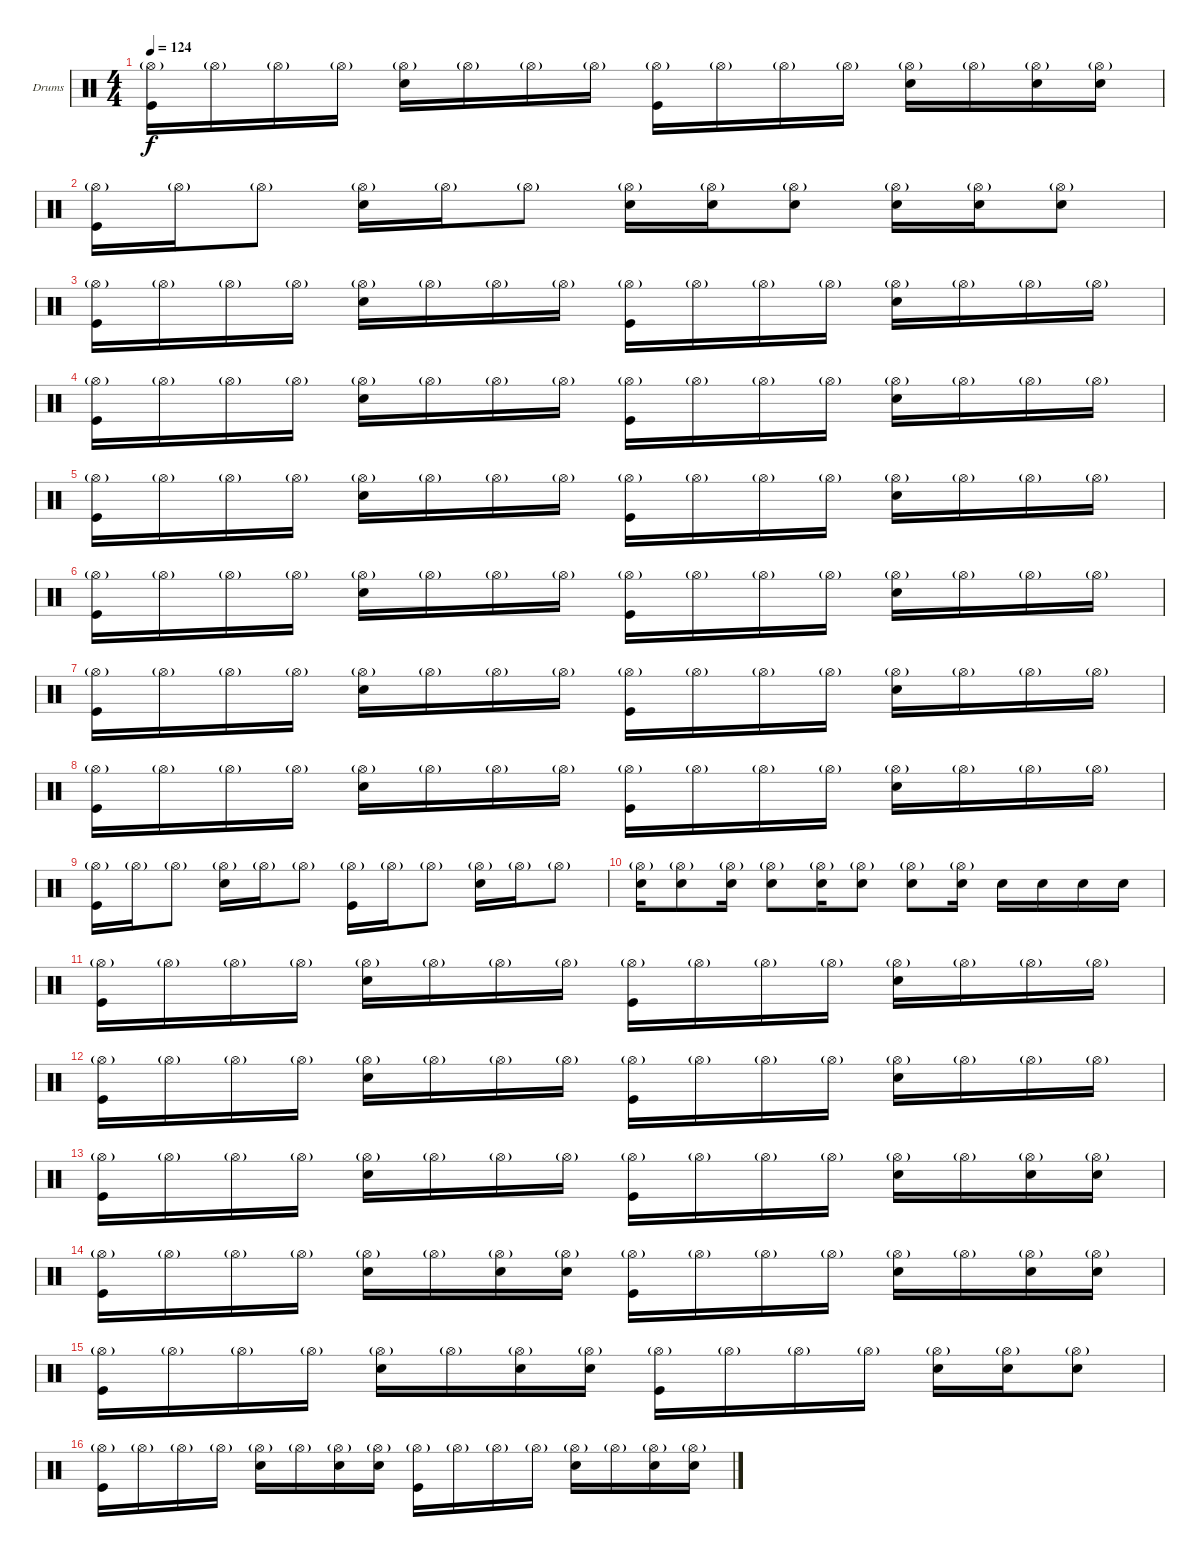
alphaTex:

\bracketExtendMode groupsimilarinstruments
\firstSystemTrackNameOrientation horizontal
\otherSystemsTrackNameOrientation horizontal
\track ("Drumkit" "Drums") {instrument percussion}
\staff {score}
\articulation defaults
\ts (4 4)
\tempo 124
\clef neutral
\ks c
("Kick (hit)" "Hi-Hat (open)"{g}).16{dy f} "Hi-Hat (open)"{g}.16 "Hi-Hat (open)"{g}.16 "Hi-Hat (open)"{g}.16 ("Snare (hit) 2" "Hi-Hat (open)"{g}).16 "Hi-Hat (open)"{g}.16 "Hi-Hat (open)"{g}.16 "Hi-Hat (open)"{g}.16 ("Kick (hit)" "Hi-Hat (open)"{g}).16 "Hi-Hat (open)"{g}.16 "Hi-Hat (open)"{g}.16 "Hi-Hat (open)"{g}.16 ("Snare (hit) 2" "Hi-Hat (open)"{g}).16 "Hi-Hat (open)"{g}.16 ("Snare (hit) 2" "Hi-Hat (open)"{g}).16 ("Snare (hit) 2" "Hi-Hat (open)"{g}).16 |
("Kick (hit)" "Hi-Hat (open)"{g}).16 "Hi-Hat (open)"{g}.16 "Hi-Hat (open)"{g}.8 ("Snare (hit) 2" "Hi-Hat (open)"{g}).16 "Hi-Hat (open)"{g}.16 "Hi-Hat (open)"{g}.8 ("Snare (hit) 2" "Hi-Hat (open)"{g}).16 ("Snare (hit) 2" "Hi-Hat (open)"{g}).16 ("Snare (hit) 2" "Hi-Hat (open)"{g}).8 ("Snare (hit) 2" "Hi-Hat (open)"{g}).16 ("Snare (hit) 2" "Hi-Hat (open)"{g}).16 ("Snare (hit) 2" "Hi-Hat (open)"{g}).8 |
("Kick (hit)" "Hi-Hat (open)"{g}).16 "Hi-Hat (open)"{g}.16 "Hi-Hat (open)"{g}.16 "Hi-Hat (open)"{g}.16 ("Snare (hit) 2" "Hi-Hat (open)"{g}).16 "Hi-Hat (open)"{g}.16 "Hi-Hat (open)"{g}.16 "Hi-Hat (open)"{g}.16 ("Kick (hit)" "Hi-Hat (open)"{g}).16 "Hi-Hat (open)"{g}.16 "Hi-Hat (open)"{g}.16 "Hi-Hat (open)"{g}.16 ("Snare (hit) 2" "Hi-Hat (open)"{g}).16 "Hi-Hat (open)"{g}.16 "Hi-Hat (open)"{g}.16 "Hi-Hat (open)"{g}.16 |
("Kick (hit)" "Hi-Hat (open)"{g}).16 "Hi-Hat (open)"{g}.16 "Hi-Hat (open)"{g}.16 "Hi-Hat (open)"{g}.16 ("Snare (hit) 2" "Hi-Hat (open)"{g}).16 "Hi-Hat (open)"{g}.16 "Hi-Hat (open)"{g}.16 "Hi-Hat (open)"{g}.16 ("Kick (hit)" "Hi-Hat (open)"{g}).16 "Hi-Hat (open)"{g}.16 "Hi-Hat (open)"{g}.16 "Hi-Hat (open)"{g}.16 ("Snare (hit) 2" "Hi-Hat (open)"{g}).16 "Hi-Hat (open)"{g}.16 "Hi-Hat (open)"{g}.16 "Hi-Hat (open)"{g}.16 |
("Kick (hit)" "Hi-Hat (open)"{g}).16 "Hi-Hat (open)"{g}.16 "Hi-Hat (open)"{g}.16 "Hi-Hat (open)"{g}.16 ("Snare (hit) 2" "Hi-Hat (open)"{g}).16 "Hi-Hat (open)"{g}.16 "Hi-Hat (open)"{g}.16 "Hi-Hat (open)"{g}.16 ("Kick (hit)" "Hi-Hat (open)"{g}).16 "Hi-Hat (open)"{g}.16 "Hi-Hat (open)"{g}.16 "Hi-Hat (open)"{g}.16 ("Snare (hit) 2" "Hi-Hat (open)"{g}).16 "Hi-Hat (open)"{g}.16 "Hi-Hat (open)"{g}.16 "Hi-Hat (open)"{g}.16 |
("Kick (hit)" "Hi-Hat (open)"{g}).16 "Hi-Hat (open)"{g}.16 "Hi-Hat (open)"{g}.16 "Hi-Hat (open)"{g}.16 ("Snare (hit) 2" "Hi-Hat (open)"{g}).16 "Hi-Hat (open)"{g}.16 "Hi-Hat (open)"{g}.16 "Hi-Hat (open)"{g}.16 ("Kick (hit)" "Hi-Hat (open)"{g}).16 "Hi-Hat (open)"{g}.16 "Hi-Hat (open)"{g}.16 "Hi-Hat (open)"{g}.16 ("Snare (hit) 2" "Hi-Hat (open)"{g}).16 "Hi-Hat (open)"{g}.16 "Hi-Hat (open)"{g}.16 "Hi-Hat (open)"{g}.16 |
("Kick (hit)" "Hi-Hat (open)"{g}).16 "Hi-Hat (open)"{g}.16 "Hi-Hat (open)"{g}.16 "Hi-Hat (open)"{g}.16 ("Snare (hit) 2" "Hi-Hat (open)"{g}).16 "Hi-Hat (open)"{g}.16 "Hi-Hat (open)"{g}.16 "Hi-Hat (open)"{g}.16 ("Kick (hit)" "Hi-Hat (open)"{g}).16 "Hi-Hat (open)"{g}.16 "Hi-Hat (open)"{g}.16 "Hi-Hat (open)"{g}.16 ("Snare (hit) 2" "Hi-Hat (open)"{g}).16 "Hi-Hat (open)"{g}.16 "Hi-Hat (open)"{g}.16 "Hi-Hat (open)"{g}.16 |
("Kick (hit)" "Hi-Hat (open)"{g}).16 "Hi-Hat (open)"{g}.16 "Hi-Hat (open)"{g}.16 "Hi-Hat (open)"{g}.16 ("Snare (hit) 2" "Hi-Hat (open)"{g}).16 "Hi-Hat (open)"{g}.16 "Hi-Hat (open)"{g}.16 "Hi-Hat (open)"{g}.16 ("Kick (hit)" "Hi-Hat (open)"{g}).16 "Hi-Hat (open)"{g}.16 "Hi-Hat (open)"{g}.16 "Hi-Hat (open)"{g}.16 ("Snare (hit) 2" "Hi-Hat (open)"{g}).16 "Hi-Hat (open)"{g}.16 "Hi-Hat (open)"{g}.16 "Hi-Hat (open)"{g}.16 |
("Kick (hit)" "Hi-Hat (open)"{g}).16 "Hi-Hat (open)"{g}.16 "Hi-Hat (open)"{g}.8 ("Snare (hit) 2" "Hi-Hat (open)"{g}).16 "Hi-Hat (open)"{g}.16 "Hi-Hat (open)"{g}.8 ("Kick (hit)" "Hi-Hat (open)"{g}).16 "Hi-Hat (open)"{g}.16 "Hi-Hat (open)"{g}.8 ("Snare (hit) 2" "Hi-Hat (open)"{g}).16 "Hi-Hat (open)"{g}.16 "Hi-Hat (open)"{g}.8 |
("Snare (hit) 2" "Hi-Hat (open)"{g}).16 ("Snare (hit) 2" "Hi-Hat (open)"{g}).8 ("Snare (hit) 2" "Hi-Hat (open)"{g}).16 ("Snare (hit) 2" "Hi-Hat (open)"{g}).8 ("Snare (hit) 2" "Hi-Hat (open)"{g}).16 ("Snare (hit) 2" "Hi-Hat (open)"{g}).8 ("Snare (hit) 2" "Hi-Hat (open)"{g}).8 ("Snare (hit) 2" "Hi-Hat (open)"{g}).16 "Snare (hit) 2".16 "Snare (hit) 2".16 "Snare (hit) 2".16 "Snare (hit) 2".16 |
("Kick (hit)" "Hi-Hat (open)"{g}).16 "Hi-Hat (open)"{g}.16 "Hi-Hat (open)"{g}.16 "Hi-Hat (open)"{g}.16 ("Snare (hit) 2" "Hi-Hat (open)"{g}).16 "Hi-Hat (open)"{g}.16 "Hi-Hat (open)"{g}.16 "Hi-Hat (open)"{g}.16 ("Kick (hit)" "Hi-Hat (open)"{g}).16 "Hi-Hat (open)"{g}.16 "Hi-Hat (open)"{g}.16 "Hi-Hat (open)"{g}.16 ("Snare (hit) 2" "Hi-Hat (open)"{g}).16 "Hi-Hat (open)"{g}.16 "Hi-Hat (open)"{g}.16 "Hi-Hat (open)"{g}.16 |
("Kick (hit)" "Hi-Hat (open)"{g}).16 "Hi-Hat (open)"{g}.16 "Hi-Hat (open)"{g}.16 "Hi-Hat (open)"{g}.16 ("Snare (hit) 2" "Hi-Hat (open)"{g}).16 "Hi-Hat (open)"{g}.16 "Hi-Hat (open)"{g}.16 "Hi-Hat (open)"{g}.16 ("Kick (hit)" "Hi-Hat (open)"{g}).16 "Hi-Hat (open)"{g}.16 "Hi-Hat (open)"{g}.16 "Hi-Hat (open)"{g}.16 ("Snare (hit) 2" "Hi-Hat (open)"{g}).16 "Hi-Hat (open)"{g}.16 "Hi-Hat (open)"{g}.16 "Hi-Hat (open)"{g}.16 |
("Kick (hit)" "Hi-Hat (open)"{g}).16 "Hi-Hat (open)"{g}.16 "Hi-Hat (open)"{g}.16 "Hi-Hat (open)"{g}.16 ("Snare (hit) 2" "Hi-Hat (open)"{g}).16 "Hi-Hat (open)"{g}.16 "Hi-Hat (open)"{g}.16 "Hi-Hat (open)"{g}.16 ("Kick (hit)" "Hi-Hat (open)"{g}).16 "Hi-Hat (open)"{g}.16 "Hi-Hat (open)"{g}.16 "Hi-Hat (open)"{g}.16 ("Snare (hit) 2" "Hi-Hat (open)"{g}).16 "Hi-Hat (open)"{g}.16 ("Snare (hit) 2" "Hi-Hat (open)"{g}).16 ("Snare (hit) 2" "Hi-Hat (open)"{g}).16 |
("Kick (hit)" "Hi-Hat (open)"{g}).16 "Hi-Hat (open)"{g}.16 "Hi-Hat (open)"{g}.16 "Hi-Hat (open)"{g}.16 ("Snare (hit) 2" "Hi-Hat (open)"{g}).16 "Hi-Hat (open)"{g}.16 ("Snare (hit) 2" "Hi-Hat (open)"{g}).16 ("Snare (hit) 2" "Hi-Hat (open)"{g}).16 ("Kick (hit)" "Hi-Hat (open)"{g}).16 "Hi-Hat (open)"{g}.16 "Hi-Hat (open)"{g}.16 "Hi-Hat (open)"{g}.16 ("Snare (hit) 2" "Hi-Hat (open)"{g}).16 "Hi-Hat (open)"{g}.16 ("Snare (hit) 2" "Hi-Hat (open)"{g}).16 ("Snare (hit) 2" "Hi-Hat (open)"{g}).16 |
("Kick (hit)" "Hi-Hat (open)"{g}).16 "Hi-Hat (open)"{g}.16 "Hi-Hat (open)"{g}.16 "Hi-Hat (open)"{g}.16 ("Snare (hit) 2" "Hi-Hat (open)"{g}).16 "Hi-Hat (open)"{g}.16 ("Snare (hit) 2" "Hi-Hat (open)"{g}).16 ("Snare (hit) 2" "Hi-Hat (open)"{g}).16 ("Kick (hit)" "Hi-Hat (open)"{g}).16 "Hi-Hat (open)"{g}.16 "Hi-Hat (open)"{g}.16 "Hi-Hat (open)"{g}.16 ("Snare (hit) 2" "Hi-Hat (open)"{g}).16 ("Snare (hit) 2" "Hi-Hat (open)"{g}).16 ("Snare (hit) 2" "Hi-Hat (open)"{g}).8 |
("Kick (hit)" "Hi-Hat (open)"{g}).16 "Hi-Hat (open)"{g}.16 "Hi-Hat (open)"{g}.16 "Hi-Hat (open)"{g}.16 ("Snare (hit) 2" "Hi-Hat (open)"{g}).16 "Hi-Hat (open)"{g}.16 ("Snare (hit) 2" "Hi-Hat (open)"{g}).16 ("Snare (hit) 2" "Hi-Hat (open)"{g}).16 ("Kick (hit)" "Hi-Hat (open)"{g}).16 "Hi-Hat (open)"{g}.16 "Hi-Hat (open)"{g}.16 "Hi-Hat (open)"{g}.16 ("Snare (hit) 2" "Hi-Hat (open)"{g}).16 "Hi-Hat (open)"{g}.16 ("Snare (hit) 2" "Hi-Hat (open)"{g}).16 ("Snare (hit) 2" "Hi-Hat (open)"{g}).16
